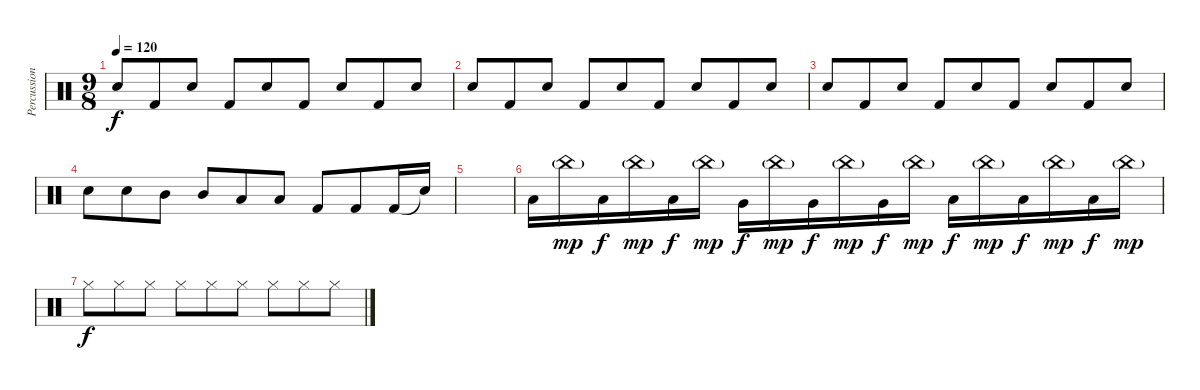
\track ("Percussion" "Percussion") {instrument percussion}
\staff {score}
\articulation defaults
\ts (9 8)
\tempo 120
\clef neutral
\ks c "Electric Snare (hit)".8{dy f} "Kick (hit) 2".8 "Electric Snare (hit)".8 "Kick (hit) 2".8 "Electric Snare (hit)".8 "Kick (hit) 2".8 "Electric Snare (hit)".8 "Kick (hit) 2".8 "Electric Snare (hit)".8
|
"Electric Snare (hit)".8 "Kick (hit) 2".8 "Electric Snare (hit)".8 "Kick (hit) 2".8 "Electric Snare (hit)".8 "Kick (hit) 2".8 "Electric Snare (hit)".8 "Kick (hit) 2".8 "Electric Snare (hit)".8 |
"Electric Snare (hit)".8 "Kick (hit) 2".8 "Electric Snare (hit)".8 "Kick (hit) 2".8 "Electric Snare (hit)".8 "Kick (hit) 2".8 "Electric Snare (hit)".8 "Kick (hit) 2".8 "Electric Snare (hit)".8 |
"Electric Snare (hit)".8 "Electric Snare (hit)".8 "Mid Tom (hit)".8 "Mid Tom (hit)".8 "Low Tom (hit)".8 "Low Tom (hit)".8 "Kick (hit) 2".8 "Kick (hit) 2".8 "Kick (hit) 2".16 "Electric Snare (hit)"{t}.16 |
|
"Low Floor Tom (hit)".16 "China (hit)"{g}.16{dy mp} "Low Floor Tom (hit)".16{dy f} "China (hit)"{g}.16{dy mp} "Low Floor Tom (hit)".16{dy f} "China (hit)"{g}.16{dy mp} "Very Low Tom (hit)".16{dy f} "China (hit)"{g}.16{dy mp} "Very Low Tom (hit)".16{dy f} "China (hit)"{g}.16{dy mp} "Very Low Tom (hit)".16{dy f} "China (hit)"{g}.16{dy mp} "Low Floor Tom (hit)".16{dy f} "China (hit)"{g}.16{dy mp} "Low Floor Tom (hit)".16{dy f} "China (hit)"{g}.16{dy mp} "Low Floor Tom (hit)".16{dy f} "China (hit)"{g}.16{dy mp} |
"Hi-Hat (closed)".8{dy f} "Hi-Hat (closed)".8 "Hi-Hat (closed)".8 "Hi-Hat (closed)".8 "Hi-Hat (closed)".8 "Hi-Hat (closed)".8 "Hi-Hat (closed)".8 "Hi-Hat (closed)".8 "Hi-Hat (closed)".8
